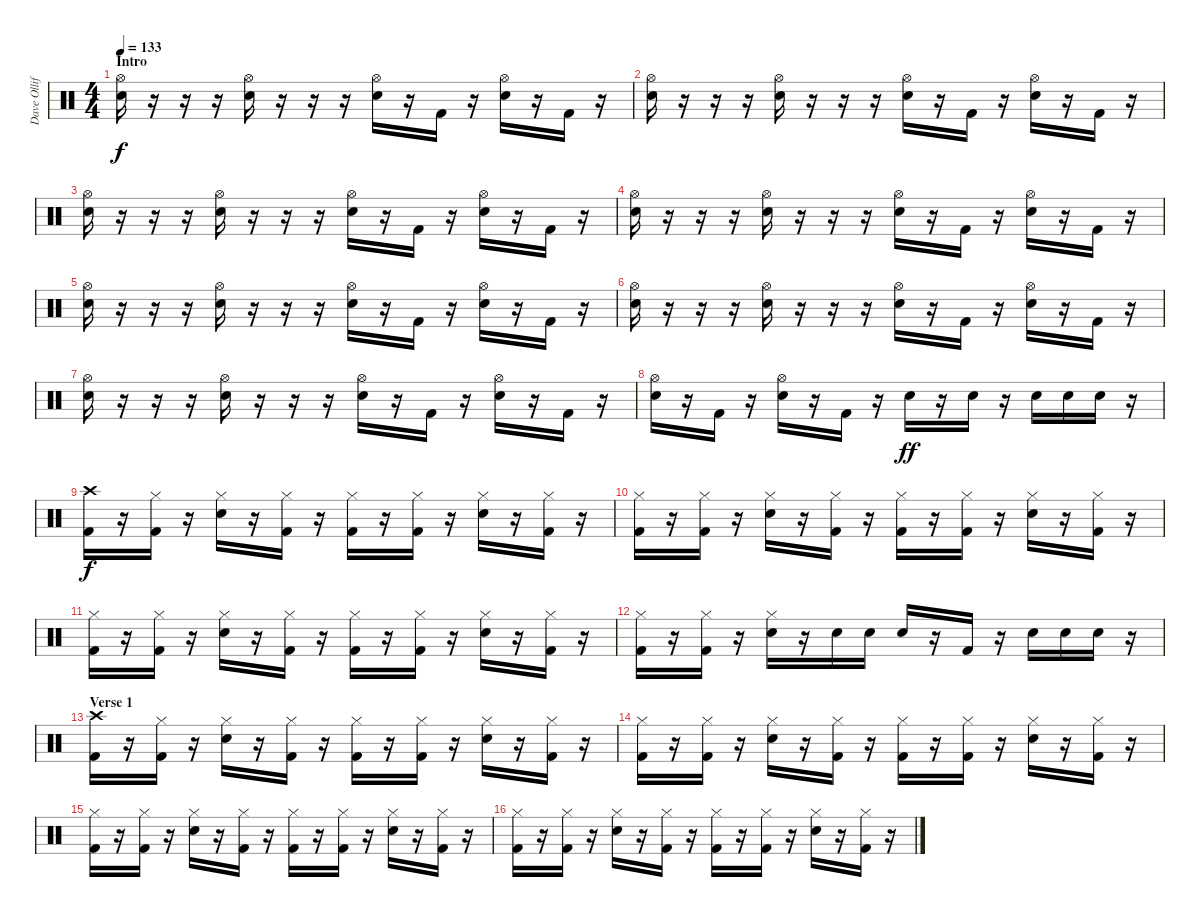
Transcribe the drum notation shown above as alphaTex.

\track ("Dave Olliffe - Drums" "Dave Ollif") {instrument percussion}
\staff {score}
\articulation defaults
\ts (4 4)
\section ("" "Intro")
\tempo 133
\clef neutral
\ks c
("Hi-Hat (open)" "Snare (hit) 2").16{dy f} r.16 r.16 r.16 ("Hi-Hat (open)" "Snare (hit) 2").16 r.16 r.16 r.16 ("Hi-Hat (open)" "Snare (hit) 2").16 r.16 "Kick (hit) 2".16 r.16 ("Hi-Hat (open)" "Snare (hit) 2").16 r.16 "Kick (hit) 2".16 r.16 |
("Hi-Hat (open)" "Snare (hit) 2").16 r.16 r.16 r.16 ("Hi-Hat (open)" "Snare (hit) 2").16 r.16 r.16 r.16 ("Hi-Hat (open)" "Snare (hit) 2").16 r.16 "Kick (hit) 2".16 r.16 ("Hi-Hat (open)" "Snare (hit) 2").16 r.16 "Kick (hit) 2".16 r.16 |
("Hi-Hat (open)" "Snare (hit) 2").16 r.16 r.16 r.16 ("Hi-Hat (open)" "Snare (hit) 2").16 r.16 r.16 r.16 ("Hi-Hat (open)" "Snare (hit) 2").16 r.16 "Kick (hit) 2".16 r.16 ("Hi-Hat (open)" "Snare (hit) 2").16 r.16 "Kick (hit) 2".16 r.16 |
("Hi-Hat (open)" "Snare (hit) 2").16 r.16 r.16 r.16 ("Hi-Hat (open)" "Snare (hit) 2").16 r.16 r.16 r.16 ("Hi-Hat (open)" "Snare (hit) 2").16 r.16 "Kick (hit) 2".16 r.16 ("Hi-Hat (open)" "Snare (hit) 2").16 r.16 "Kick (hit) 2".16 r.16 |
("Hi-Hat (open)" "Snare (hit) 2").16 r.16 r.16 r.16 ("Hi-Hat (open)" "Snare (hit) 2").16 r.16 r.16 r.16 ("Hi-Hat (open)" "Snare (hit) 2").16 r.16 "Kick (hit) 2".16 r.16 ("Hi-Hat (open)" "Snare (hit) 2").16 r.16 "Kick (hit) 2".16 r.16 |
("Hi-Hat (open)" "Snare (hit) 2").16 r.16 r.16 r.16 ("Hi-Hat (open)" "Snare (hit) 2").16 r.16 r.16 r.16 ("Hi-Hat (open)" "Snare (hit) 2").16 r.16 "Kick (hit) 2".16 r.16 ("Hi-Hat (open)" "Snare (hit) 2").16 r.16 "Kick (hit) 2".16 r.16 |
("Hi-Hat (open)" "Snare (hit) 2").16 r.16 r.16 r.16 ("Hi-Hat (open)" "Snare (hit) 2").16 r.16 r.16 r.16 ("Hi-Hat (open)" "Snare (hit) 2").16 r.16 "Kick (hit) 2".16 r.16 ("Hi-Hat (open)" "Snare (hit) 2").16 r.16 "Kick (hit) 2".16 r.16 |
("Hi-Hat (open)" "Snare (hit) 2").16 r.16 "Kick (hit) 2".16 r.16 ("Hi-Hat (open)" "Snare (hit) 2").16 r.16 "Kick (hit) 2".16 r.16 "Snare (hit) 2".16{dy ff} r.16 "Snare (hit) 2".16 r.16 "Snare (hit) 2".16 "Snare (hit) 2".16 "Snare (hit) 2".16 r.16 |
("Crash high (hit)" "Kick (hit) 2").16{dy f} r.16 ("Hi-Hat (closed)" "Kick (hit) 2").16 r.16 ("Hi-Hat (closed)" "Snare (hit) 2").16 r.16 ("Hi-Hat (closed)" "Kick (hit) 2").16 r.16 ("Hi-Hat (closed)" "Kick (hit) 2").16 r.16 ("Hi-Hat (closed)" "Kick (hit) 2").16 r.16 ("Hi-Hat (closed)" "Snare (hit) 2").16 r.16 ("Hi-Hat (closed)" "Kick (hit) 2").16 r.16 |
("Hi-Hat (closed)" "Kick (hit) 2").16 r.16 ("Hi-Hat (closed)" "Kick (hit) 2").16 r.16 ("Hi-Hat (closed)" "Snare (hit) 2").16 r.16 ("Hi-Hat (closed)" "Kick (hit) 2").16 r.16 ("Hi-Hat (closed)" "Kick (hit) 2").16 r.16 ("Hi-Hat (closed)" "Kick (hit) 2").16 r.16 ("Hi-Hat (closed)" "Snare (hit) 2").16 r.16 ("Hi-Hat (closed)" "Kick (hit) 2").16 r.16 |
("Hi-Hat (closed)" "Kick (hit) 2").16 r.16 ("Hi-Hat (closed)" "Kick (hit) 2").16 r.16 ("Hi-Hat (closed)" "Snare (hit) 2").16 r.16 ("Hi-Hat (closed)" "Kick (hit) 2").16 r.16 ("Hi-Hat (closed)" "Kick (hit) 2").16 r.16 ("Hi-Hat (closed)" "Kick (hit) 2").16 r.16 ("Hi-Hat (closed)" "Snare (hit) 2").16 r.16 ("Hi-Hat (closed)" "Kick (hit) 2").16 r.16 |
("Hi-Hat (closed)" "Kick (hit) 2").16 r.16 ("Hi-Hat (closed)" "Kick (hit) 2").16 r.16 ("Hi-Hat (closed)" "Snare (hit) 2").16 r.16 "Snare (hit) 2".16 "Snare (hit) 2".16 "Snare (hit) 2".16 r.16 "Kick (hit) 2".16 r.16 "Snare (hit) 2".16 "Snare (hit) 2".16 "Snare (hit) 2".16 r.16 |
\section ("" "Verse 1")
("Crash high (hit)" "Kick (hit) 2").16 r.16 ("Hi-Hat (closed)" "Kick (hit) 2").16 r.16 ("Hi-Hat (closed)" "Snare (hit) 2").16 r.16 ("Hi-Hat (closed)" "Kick (hit) 2").16 r.16 ("Hi-Hat (closed)" "Kick (hit) 2").16 r.16 ("Hi-Hat (closed)" "Kick (hit) 2").16 r.16 ("Hi-Hat (closed)" "Snare (hit) 2").16 r.16 ("Hi-Hat (closed)" "Kick (hit) 2").16 r.16 |
("Hi-Hat (closed)" "Kick (hit) 2").16 r.16 ("Hi-Hat (closed)" "Kick (hit) 2").16 r.16 ("Hi-Hat (closed)" "Snare (hit) 2").16 r.16 ("Hi-Hat (closed)" "Kick (hit) 2").16 r.16 ("Hi-Hat (closed)" "Kick (hit) 2").16 r.16 ("Hi-Hat (closed)" "Kick (hit) 2").16 r.16 ("Hi-Hat (closed)" "Snare (hit) 2").16 r.16 ("Hi-Hat (closed)" "Kick (hit) 2").16 r.16 |
("Hi-Hat (closed)" "Kick (hit) 2").16 r.16 ("Hi-Hat (closed)" "Kick (hit) 2").16 r.16 ("Hi-Hat (closed)" "Snare (hit) 2").16 r.16 ("Hi-Hat (closed)" "Kick (hit) 2").16 r.16 ("Hi-Hat (closed)" "Kick (hit) 2").16 r.16 ("Hi-Hat (closed)" "Kick (hit) 2").16 r.16 ("Hi-Hat (closed)" "Snare (hit) 2").16 r.16 ("Hi-Hat (closed)" "Kick (hit) 2").16 r.16 |
("Hi-Hat (closed)" "Kick (hit) 2").16 r.16 ("Hi-Hat (closed)" "Kick (hit) 2").16 r.16 ("Hi-Hat (closed)" "Snare (hit) 2").16 r.16 ("Hi-Hat (closed)" "Kick (hit) 2").16 r.16 ("Hi-Hat (closed)" "Kick (hit) 2").16 r.16 ("Hi-Hat (closed)" "Kick (hit) 2").16 r.16 ("Hi-Hat (closed)" "Snare (hit) 2").16 r.16 ("Hi-Hat (closed)" "Kick (hit) 2").16 r.16
